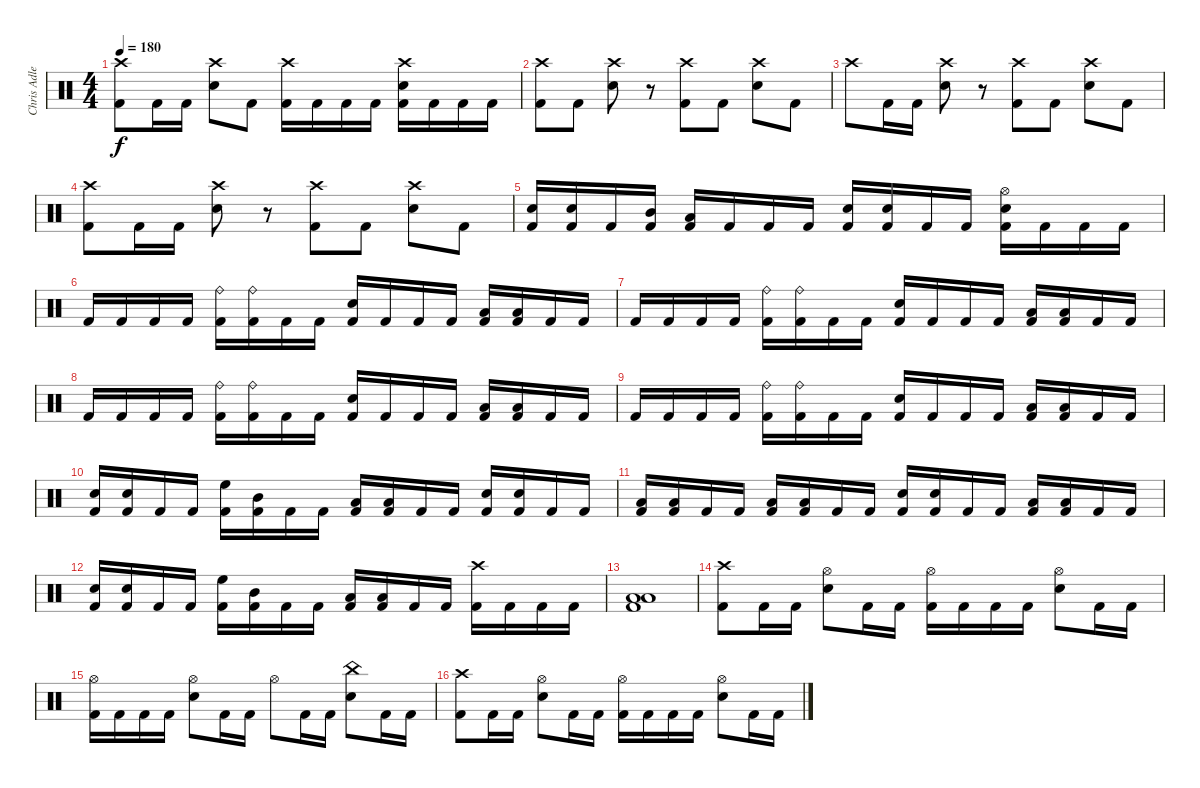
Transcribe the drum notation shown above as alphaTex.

\track ("Chris Adler" "Chris Adle") {instrument percussion}
\staff {score}
\articulation defaults
\ts (4 4)
\tempo 180
\clef neutral
\ks c
("Crash high (hit)" "Kick (hit) 2").8{dy f} "Kick (hit) 2".16 "Kick (hit) 2".16 ("Crash high (hit)" "Snare (hit) 2").8 "Kick (hit) 2".8 ("Crash high (hit)" "Kick (hit) 2").16 "Kick (hit) 2".16 "Kick (hit) 2".16 "Kick (hit) 2".16 ("Crash high (hit)" "Snare (hit) 2" "Kick (hit) 2").16 "Kick (hit) 2".16 "Kick (hit) 2".16 "Kick (hit) 2".16 |
("Crash high (hit)" "Kick (hit) 2").8 "Kick (hit) 2".8 ("Crash high (hit)" "Snare (hit) 2").8 r.8 ("Crash high (hit)" "Kick (hit) 2").8 "Kick (hit) 2".8 ("Crash high (hit)" "Snare (hit) 2").8 "Kick (hit) 2".8 |
"Crash high (hit)".8 "Kick (hit) 2".16 "Kick (hit) 2".16 ("Crash high (hit)" "Snare (hit) 2").8 r.8 ("Crash high (hit)" "Kick (hit) 2").8 "Kick (hit) 2".8 ("Crash high (hit)" "Snare (hit) 2").8 "Kick (hit) 2".8 |
("Crash high (hit)" "Kick (hit) 2").8 "Kick (hit) 2".16 "Kick (hit) 2".16 ("Crash high (hit)" "Snare (hit) 2").8 r.8 ("Crash high (hit)" "Kick (hit) 2").8 "Kick (hit) 2".8 ("Crash high (hit)" "Snare (hit) 2").8 "Kick (hit) 2".8 |
("Electric Snare (hit)" "Kick (hit) 2").16 ("Electric Snare (hit)" "Kick (hit) 2").16 "Kick (hit) 2".16 ("Mid Tom (hit)" "Kick (hit) 2").16 ("Low Tom (hit)" "Kick (hit) 2").16 "Kick (hit) 2".16 "Kick (hit) 2".16 "Kick (hit) 2".16 ("Electric Snare (hit)" "Kick (hit) 2").16 ("Electric Snare (hit)" "Kick (hit) 2").16 "Kick (hit) 2".16 "Kick (hit) 2".16 ("Hi-Hat (open)" "Snare (hit) 2" "Kick (hit) 2").16 "Kick (hit) 2".16 "Kick (hit) 2".16 "Kick (hit) 2".16 |
"Kick (hit) 2".16 "Kick (hit) 2".16 "Kick (hit) 2".16 "Kick (hit) 2".16 ("Ride (bell)" "Kick (hit) 2").16 ("Ride (bell)" "Kick (hit) 2").16 "Kick (hit) 2".16 "Kick (hit) 2".16 ("Electric Snare (hit)" "Kick (hit) 2").16 "Kick (hit) 2".16 "Kick (hit) 2".16 "Kick (hit) 2".16 ("Low Tom (hit)" "Kick (hit) 2").16 ("Low Floor Tom (hit)" "Kick (hit) 2").16 "Kick (hit) 2".16 "Kick (hit) 2".16 |
"Kick (hit) 2".16 "Kick (hit) 2".16 "Kick (hit) 2".16 "Kick (hit) 2".16 ("Ride (bell)" "Kick (hit) 2").16 ("Ride (bell)" "Kick (hit) 2").16 "Kick (hit) 2".16 "Kick (hit) 2".16 ("Electric Snare (hit)" "Kick (hit) 2").16 "Kick (hit) 2".16 "Kick (hit) 2".16 "Kick (hit) 2".16 ("Low Tom (hit)" "Kick (hit) 2").16 ("Low Floor Tom (hit)" "Kick (hit) 2").16 "Kick (hit) 2".16 "Kick (hit) 2".16 |
"Kick (hit) 2".16 "Kick (hit) 2".16 "Kick (hit) 2".16 "Kick (hit) 2".16 ("Ride (bell)" "Kick (hit) 2").16 ("Ride (bell)" "Kick (hit) 2").16 "Kick (hit) 2".16 "Kick (hit) 2".16 ("Electric Snare (hit)" "Kick (hit) 2").16 "Kick (hit) 2".16 "Kick (hit) 2".16 "Kick (hit) 2".16 ("Low Tom (hit)" "Kick (hit) 2").16 ("Low Floor Tom (hit)" "Kick (hit) 2").16 "Kick (hit) 2".16 "Kick (hit) 2".16 |
"Kick (hit) 2".16 "Kick (hit) 2".16 "Kick (hit) 2".16 "Kick (hit) 2".16 ("Ride (bell)" "Kick (hit) 2").16 ("Ride (bell)" "Kick (hit) 2").16 "Kick (hit) 2".16 "Kick (hit) 2".16 ("Electric Snare (hit)" "Kick (hit) 2").16 "Kick (hit) 2".16 "Kick (hit) 2".16 "Kick (hit) 2".16 ("Low Tom (hit)" "Kick (hit) 2").16 ("Low Floor Tom (hit)" "Kick (hit) 2").16 "Kick (hit) 2".16 "Kick (hit) 2".16 |
("Electric Snare (hit)" "Kick (hit) 2").16 ("Electric Snare (hit)" "Kick (hit) 2").16 "Kick (hit) 2".16 "Kick (hit) 2".16 ("High Floor Tom (hit)" "Kick (hit) 2").16 ("Mid Tom (hit)" "Kick (hit) 2").16 "Kick (hit) 2".16 "Kick (hit) 2".16 ("Low Tom (hit)" "Kick (hit) 2").16 ("Low Floor Tom (hit)" "Kick (hit) 2").16 "Kick (hit) 2".16 "Kick (hit) 2".16 ("Electric Snare (hit)" "Kick (hit) 2").16 ("Electric Snare (hit)" "Kick (hit) 2").16 "Kick (hit) 2".16 "Kick (hit) 2".16 |
("Low Tom (hit)" "Kick (hit) 2").16 ("Low Floor Tom (hit)" "Kick (hit) 2").16 "Kick (hit) 2".16 "Kick (hit) 2".16 ("Low Tom (hit)" "Kick (hit) 2").16 ("Low Floor Tom (hit)" "Kick (hit) 2").16 "Kick (hit) 2".16 "Kick (hit) 2".16 ("Electric Snare (hit)" "Kick (hit) 2").16 ("Electric Snare (hit)" "Kick (hit) 2").16 "Kick (hit) 2".16 "Kick (hit) 2".16 ("Low Tom (hit)" "Kick (hit) 2").16 ("Low Floor Tom (hit)" "Kick (hit) 2").16 "Kick (hit) 2".16 "Kick (hit) 2".16 |
("Electric Snare (hit)" "Kick (hit) 2").16 ("Electric Snare (hit)" "Kick (hit) 2").16 "Kick (hit) 2".16 "Kick (hit) 2".16 ("High Floor Tom (hit)" "Kick (hit) 2").16 ("Mid Tom (hit)" "Kick (hit) 2").16 "Kick (hit) 2".16 "Kick (hit) 2".16 ("Low Tom (hit)" "Kick (hit) 2").16 ("Low Floor Tom (hit)" "Kick (hit) 2").16 "Kick (hit) 2".16 "Kick (hit) 2".16 ("Crash high (hit)" "Kick (hit) 2").16 "Kick (hit) 2".16 "Kick (hit) 2".16 "Kick (hit) 2".16 |
("Low Floor Tom (hit)" "Kick (hit) 2" "Low Tom (hit)").1 |
("Crash high (hit)" "Kick (hit) 2").8 "Kick (hit) 2".16 "Kick (hit) 2".16 ("Hi-Hat (open)" "Electric Snare (hit)").8 "Kick (hit) 2".16 "Kick (hit) 2".16 ("Hi-Hat (open)" "Kick (hit) 2").16 "Kick (hit) 2".16 "Kick (hit) 2".16 "Kick (hit) 2".16 ("Hi-Hat (open)" "Electric Snare (hit)").8 "Kick (hit) 2".16 "Kick (hit) 2".16 |
("Hi-Hat (open)" "Kick (hit) 2").16 "Kick (hit) 2".16 "Kick (hit) 2".16 "Kick (hit) 2".16 ("Hi-Hat (open)" "Electric Snare (hit)").8 "Kick (hit) 2".16 "Kick (hit) 2".16 "Hi-Hat (open)".8 "Kick (hit) 2".16 "Kick (hit) 2".16 ("China (hit)" "Electric Snare (hit)").8 "Kick (hit) 2".16 "Kick (hit) 2".16 |
("Crash high (hit)" "Kick (hit) 2").8 "Kick (hit) 2".16 "Kick (hit) 2".16 ("Hi-Hat (open)" "Electric Snare (hit)").8 "Kick (hit) 2".16 "Kick (hit) 2".16 ("Hi-Hat (open)" "Kick (hit) 2").16 "Kick (hit) 2".16 "Kick (hit) 2".16 "Kick (hit) 2".16 ("Hi-Hat (open)" "Electric Snare (hit)").8 "Kick (hit) 2".16 "Kick (hit) 2".16
